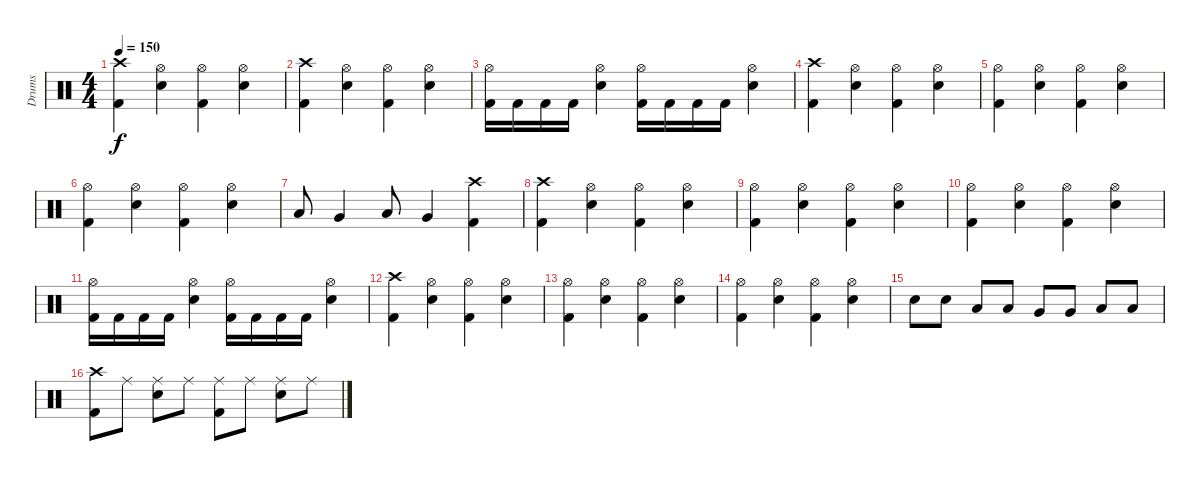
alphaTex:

\track ("Drums" "Drums") {instrument percussion}
\staff {score}
\articulation defaults
\ts (4 4)
\tempo 150
\clef neutral
\ks c
("Crash high (hit)" "Kick (hit) 2").4{dy f} ("Hi-Hat (open)" "Snare (hit) 2").4 ("Hi-Hat (open)" "Kick (hit) 2").4 ("Hi-Hat (open)" "Snare (hit) 2").4 |
("Crash high (hit)" "Kick (hit) 2").4 ("Hi-Hat (open)" "Snare (hit) 2").4 ("Hi-Hat (open)" "Kick (hit) 2").4 ("Hi-Hat (open)" "Snare (hit) 2").4 |
("Hi-Hat (open)" "Kick (hit) 2").16 "Kick (hit) 2".16 "Kick (hit) 2".16 "Kick (hit) 2".16 ("Hi-Hat (open)" "Snare (hit) 2").4 ("Hi-Hat (open)" "Kick (hit) 2").16 "Kick (hit) 2".16 "Kick (hit) 2".16 "Kick (hit) 2".16 ("Hi-Hat (open)" "Snare (hit) 2").4 |
("Crash high (hit)" "Kick (hit) 2").4 ("Hi-Hat (open)" "Snare (hit) 2").4 ("Hi-Hat (open)" "Kick (hit) 2").4 ("Hi-Hat (open)" "Snare (hit) 2").4 |
("Hi-Hat (open)" "Kick (hit) 2").4 ("Hi-Hat (open)" "Snare (hit) 2").4 ("Hi-Hat (open)" "Kick (hit) 2").4 ("Hi-Hat (open)" "Snare (hit) 2").4 |
("Hi-Hat (open)" "Kick (hit) 2").4 ("Hi-Hat (open)" "Snare (hit) 2").4 ("Hi-Hat (open)" "Kick (hit) 2").4 ("Hi-Hat (open)" "Snare (hit) 2").4 |
"Low Tom (hit)".8 "Very Low Tom (hit)".4 "Low Tom (hit)".8 "Very Low Tom (hit)".4 ("Crash high (hit)" "Kick (hit) 2").4 |
("Crash high (hit)" "Kick (hit) 2").4 ("Hi-Hat (open)" "Snare (hit) 2").4 ("Hi-Hat (open)" "Kick (hit) 2").4 ("Hi-Hat (open)" "Snare (hit) 2").4 |
("Hi-Hat (open)" "Kick (hit) 2").4 ("Hi-Hat (open)" "Snare (hit) 2").4 ("Hi-Hat (open)" "Kick (hit) 2").4 ("Hi-Hat (open)" "Snare (hit) 2").4 |
("Hi-Hat (open)" "Kick (hit) 2").4 ("Hi-Hat (open)" "Snare (hit) 2").4 ("Hi-Hat (open)" "Kick (hit) 2").4 ("Hi-Hat (open)" "Snare (hit) 2").4 |
("Hi-Hat (open)" "Kick (hit) 2").16 "Kick (hit) 2".16 "Kick (hit) 2".16 "Kick (hit) 2".16 ("Hi-Hat (open)" "Snare (hit) 2").4 ("Hi-Hat (open)" "Kick (hit) 2").16 "Kick (hit) 2".16 "Kick (hit) 2".16 "Kick (hit) 2".16 ("Hi-Hat (open)" "Snare (hit) 2").4 |
("Crash high (hit)" "Kick (hit) 2").4 ("Hi-Hat (open)" "Snare (hit) 2").4 ("Hi-Hat (open)" "Kick (hit) 2").4 ("Hi-Hat (open)" "Snare (hit) 2").4 |
("Hi-Hat (open)" "Kick (hit) 2").4 ("Hi-Hat (open)" "Snare (hit) 2").4 ("Hi-Hat (open)" "Kick (hit) 2").4 ("Hi-Hat (open)" "Snare (hit) 2").4 |
("Hi-Hat (open)" "Kick (hit) 2").4 ("Hi-Hat (open)" "Snare (hit) 2").4 ("Hi-Hat (open)" "Kick (hit) 2").4 ("Hi-Hat (open)" "Snare (hit) 2").4 |
"Snare (hit) 2".8 "Snare (hit) 2".8 "Low Tom (hit)".8 "Low Tom (hit)".8 "Very Low Tom (hit)".8 "Very Low Tom (hit)".8 "Low Floor Tom (hit)".8 "Low Floor Tom (hit)".8 |
("Crash high (hit)" "Kick (hit) 2").8 "Ride (middle)".8 ("Ride (middle)" "Snare (hit) 2").8 "Ride (middle)".8 ("Ride (middle)" "Kick (hit) 2").8 "Ride (middle)".8 ("Ride (middle)" "Snare (hit) 2").8 "Ride (middle)".8
